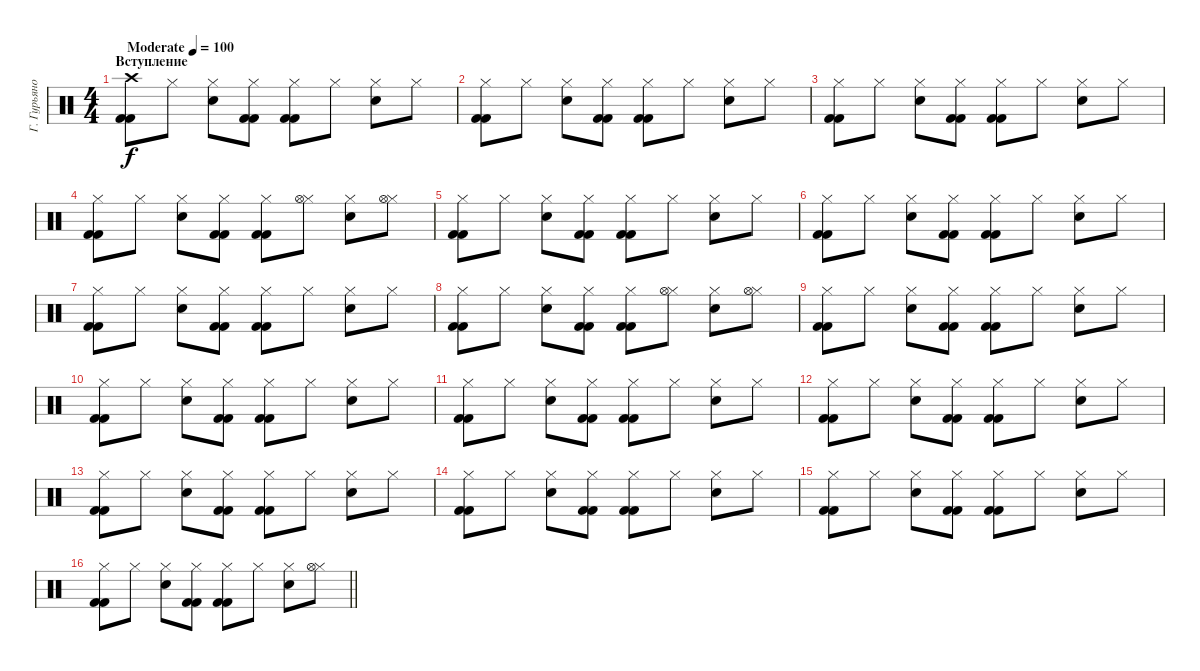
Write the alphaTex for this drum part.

\track ("Г. Гурьянов" "Г. Гурьяно") {instrument percussion}
\staff {score}
\articulation defaults
\ts (4 4)
\section ("" "Вступление")
\tempo (100 "Moderate")
\clef neutral
\ks c
("Crash high (hit)" "Kick (hit) 2" "Kick (hit) 2").8{dy f} "Hi-Hat (closed)".8 ("Hi-Hat (closed)" "Hand Clap (hit)").8 ("Hi-Hat (closed)" "Kick (hit) 2" "Kick (hit) 2").8 ("Hi-Hat (closed)" "Kick (hit) 2" "Kick (hit) 2").8 "Hi-Hat (closed)".8 ("Hi-Hat (closed)" "Hand Clap (hit)").8 "Hi-Hat (closed)".8 |
("Hi-Hat (closed)" "Kick (hit) 2" "Kick (hit) 2").8 "Hi-Hat (closed)".8 ("Hi-Hat (closed)" "Hand Clap (hit)").8 ("Hi-Hat (closed)" "Kick (hit) 2" "Kick (hit) 2").8 ("Hi-Hat (closed)" "Kick (hit) 2" "Kick (hit) 2").8 "Hi-Hat (closed)".8 ("Hi-Hat (closed)" "Hand Clap (hit)").8 "Hi-Hat (closed)".8 |
("Hi-Hat (closed)" "Kick (hit) 2" "Kick (hit) 2").8 "Hi-Hat (closed)".8 ("Hi-Hat (closed)" "Hand Clap (hit)").8 ("Hi-Hat (closed)" "Kick (hit) 2" "Kick (hit) 2").8 ("Hi-Hat (closed)" "Kick (hit) 2" "Kick (hit) 2").8 "Hi-Hat (closed)".8 ("Hi-Hat (closed)" "Hand Clap (hit)").8 "Hi-Hat (closed)".8 |
("Hi-Hat (closed)" "Kick (hit) 2" "Kick (hit) 2").8 "Hi-Hat (closed)".8 ("Hi-Hat (closed)" "Hand Clap (hit)").8 ("Hi-Hat (closed)" "Kick (hit) 2" "Kick (hit) 2").8 ("Hi-Hat (closed)" "Kick (hit) 2" "Kick (hit) 2").8 ("Hi-Hat (closed)" "Hi-Hat (open)").8 ("Hi-Hat (closed)" "Hand Clap (hit)").8 ("Hi-Hat (closed)" "Hi-Hat (open)").8 |
("Hi-Hat (closed)" "Kick (hit) 2" "Kick (hit) 2").8 "Hi-Hat (closed)".8 ("Hi-Hat (closed)" "Hand Clap (hit)").8 ("Hi-Hat (closed)" "Kick (hit) 2" "Kick (hit) 2").8 ("Hi-Hat (closed)" "Kick (hit) 2" "Kick (hit) 2").8 "Hi-Hat (closed)".8 ("Hi-Hat (closed)" "Hand Clap (hit)").8 "Hi-Hat (closed)".8 |
("Hi-Hat (closed)" "Kick (hit) 2" "Kick (hit) 2").8 "Hi-Hat (closed)".8 ("Hi-Hat (closed)" "Hand Clap (hit)").8 ("Hi-Hat (closed)" "Kick (hit) 2" "Kick (hit) 2").8 ("Hi-Hat (closed)" "Kick (hit) 2" "Kick (hit) 2").8 "Hi-Hat (closed)".8 ("Hi-Hat (closed)" "Hand Clap (hit)").8 "Hi-Hat (closed)".8 |
("Hi-Hat (closed)" "Kick (hit) 2" "Kick (hit) 2").8 "Hi-Hat (closed)".8 ("Hi-Hat (closed)" "Hand Clap (hit)").8 ("Hi-Hat (closed)" "Kick (hit) 2" "Kick (hit) 2").8 ("Hi-Hat (closed)" "Kick (hit) 2" "Kick (hit) 2").8 "Hi-Hat (closed)".8 ("Hi-Hat (closed)" "Hand Clap (hit)").8 "Hi-Hat (closed)".8 |
("Hi-Hat (closed)" "Kick (hit) 2" "Kick (hit) 2").8 "Hi-Hat (closed)".8 ("Hi-Hat (closed)" "Hand Clap (hit)").8 ("Hi-Hat (closed)" "Kick (hit) 2" "Kick (hit) 2").8 ("Hi-Hat (closed)" "Kick (hit) 2" "Kick (hit) 2").8 ("Hi-Hat (closed)" "Hi-Hat (open)").8 ("Hi-Hat (closed)" "Hand Clap (hit)").8 ("Hi-Hat (closed)" "Hi-Hat (open)").8 |
("Hi-Hat (closed)" "Kick (hit) 2" "Kick (hit) 2").8 "Hi-Hat (closed)".8 ("Hi-Hat (closed)" "Hand Clap (hit)").8 ("Hi-Hat (closed)" "Kick (hit) 2" "Kick (hit) 2").8 ("Hi-Hat (closed)" "Kick (hit) 2" "Kick (hit) 2").8 "Hi-Hat (closed)".8 ("Hi-Hat (closed)" "Hand Clap (hit)").8 "Hi-Hat (closed)".8 |
("Hi-Hat (closed)" "Kick (hit) 2" "Kick (hit) 2").8 "Hi-Hat (closed)".8 ("Hi-Hat (closed)" "Hand Clap (hit)").8 ("Hi-Hat (closed)" "Kick (hit) 2" "Kick (hit) 2").8 ("Hi-Hat (closed)" "Kick (hit) 2" "Kick (hit) 2").8 "Hi-Hat (closed)".8 ("Hi-Hat (closed)" "Hand Clap (hit)").8 "Hi-Hat (closed)".8 |
("Hi-Hat (closed)" "Kick (hit) 2" "Kick (hit) 2").8 "Hi-Hat (closed)".8 ("Hi-Hat (closed)" "Hand Clap (hit)").8 ("Hi-Hat (closed)" "Kick (hit) 2" "Kick (hit) 2").8 ("Hi-Hat (closed)" "Kick (hit) 2" "Kick (hit) 2").8 "Hi-Hat (closed)".8 ("Hi-Hat (closed)" "Hand Clap (hit)").8 "Hi-Hat (closed)".8 |
("Hi-Hat (closed)" "Kick (hit) 2" "Kick (hit) 2").8 "Hi-Hat (closed)".8 ("Hi-Hat (closed)" "Hand Clap (hit)").8 ("Hi-Hat (closed)" "Kick (hit) 2" "Kick (hit) 2").8 ("Hi-Hat (closed)" "Kick (hit) 2" "Kick (hit) 2").8 "Hi-Hat (closed)".8 ("Hi-Hat (closed)" "Hand Clap (hit)").8 "Hi-Hat (closed)".8 |
("Hi-Hat (closed)" "Kick (hit) 2" "Kick (hit) 2").8 "Hi-Hat (closed)".8 ("Hi-Hat (closed)" "Hand Clap (hit)").8 ("Hi-Hat (closed)" "Kick (hit) 2" "Kick (hit) 2").8 ("Hi-Hat (closed)" "Kick (hit) 2" "Kick (hit) 2").8 "Hi-Hat (closed)".8 ("Hi-Hat (closed)" "Hand Clap (hit)").8 "Hi-Hat (closed)".8 |
("Hi-Hat (closed)" "Kick (hit) 2" "Kick (hit) 2").8 "Hi-Hat (closed)".8 ("Hi-Hat (closed)" "Hand Clap (hit)").8 ("Hi-Hat (closed)" "Kick (hit) 2" "Kick (hit) 2").8 ("Hi-Hat (closed)" "Kick (hit) 2" "Kick (hit) 2").8 "Hi-Hat (closed)".8 ("Hi-Hat (closed)" "Hand Clap (hit)").8 "Hi-Hat (closed)".8 |
("Hi-Hat (closed)" "Kick (hit) 2" "Kick (hit) 2").8 "Hi-Hat (closed)".8 ("Hi-Hat (closed)" "Hand Clap (hit)").8 ("Hi-Hat (closed)" "Kick (hit) 2" "Kick (hit) 2").8 ("Hi-Hat (closed)" "Kick (hit) 2" "Kick (hit) 2").8 "Hi-Hat (closed)".8 ("Hi-Hat (closed)" "Hand Clap (hit)").8 "Hi-Hat (closed)".8 |
\barLineRight lightlight
("Hi-Hat (closed)" "Kick (hit) 2" "Kick (hit) 2").8 "Hi-Hat (closed)".8 ("Hi-Hat (closed)" "Hand Clap (hit)").8 ("Hi-Hat (closed)" "Kick (hit) 2" "Kick (hit) 2").8 ("Hi-Hat (closed)" "Kick (hit) 2" "Kick (hit) 2").8 "Hi-Hat (closed)".8 ("Hi-Hat (closed)" "Hand Clap (hit)").8 ("Hi-Hat (closed)" "Hi-Hat (open)").8
